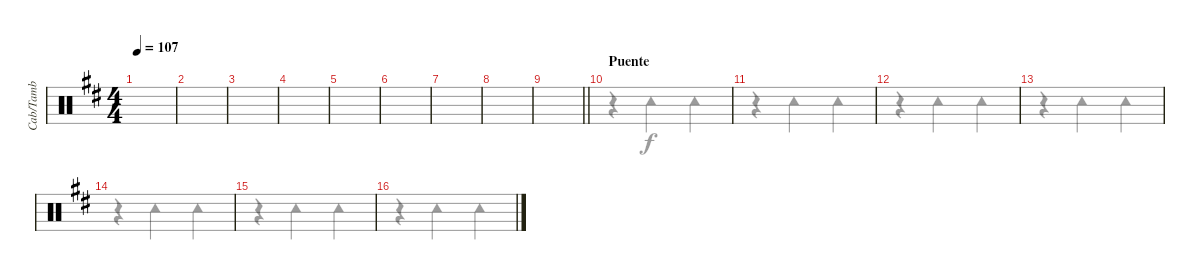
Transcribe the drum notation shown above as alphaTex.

\track ("Cab/Tamb" "Cab/Tamb") {instrument percussion}
\staff {score}
\articulation defaults
\voice
\ts (4 4)
\tempo 107
\clef neutral
\ks d
|
|
|
|
|
|
|
|
\barLineRight lightlight
|
\section ("" "Puente")
|
|
|
|
|
|
\voice
\clef neutral
\ks d
|
|
|
|
|
|
|
|
\barLineRight lightlight
|
r.4 "Tambourine (hit)".2{dy f} "Tambourine (hit)".4 |
r.4 "Tambourine (hit)".2 "Tambourine (hit)".4 |
r.4 "Tambourine (hit)".2 "Tambourine (hit)".4 |
r.4 "Tambourine (hit)".2 "Tambourine (hit)".4 |
r.4 "Tambourine (hit)".2 "Tambourine (hit)".4 |
r.4 "Tambourine (hit)".2 "Tambourine (hit)".4 |
r.4 "Tambourine (hit)".2 "Tambourine (hit)".4
